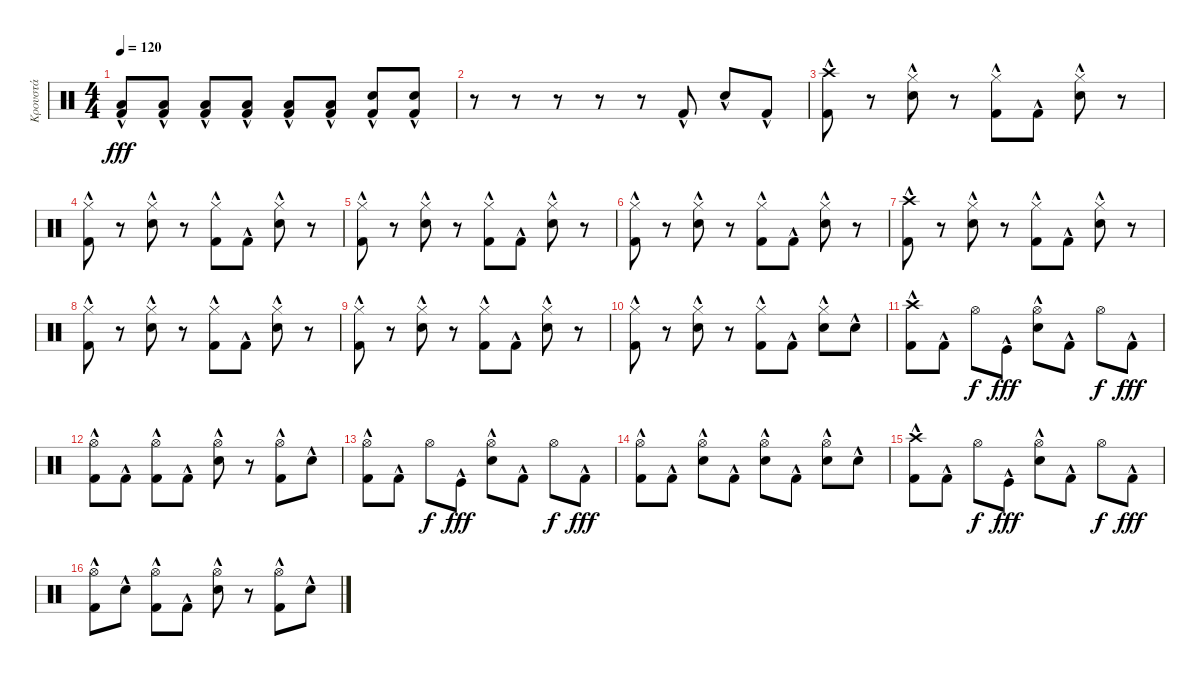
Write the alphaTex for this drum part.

\track ("Κρουστά" "Κρουστά") {instrument percussion}
\staff {score}
\articulation defaults
\ts (4 4)
\tempo 120
\clef neutral
\ks c
("Kick (hit) 2"{hac} "Low Tom (hit)").8{dy fff} ("Kick (hit) 2"{hac} "Low Tom (hit)").8 ("Kick (hit) 2"{hac} "Low Tom (hit)").8 ("Kick (hit) 2"{hac} "Low Tom (hit)").8 ("Kick (hit) 2"{hac} "Low Tom (hit)").8 ("Kick (hit) 2"{hac} "Low Tom (hit)").8 ("Kick (hit) 2"{hac} "Electric Snare (hit)"{hac}).8 ("Kick (hit) 2"{hac} "Electric Snare (hit)"{hac}).8 |
r.8 r.8 r.8 r.8 r.8 "Kick (hit) 2"{hac}.8 "Electric Snare (hit)"{hac}.8 "Kick (hit) 2"{hac}.8 |
("Kick (hit) 2"{hac} "Crash high (hit)").8 r.8 ("Electric Snare (hit)"{hac} "Hi-Hat (closed)").8 r.8 ("Kick (hit) 2"{hac} "Hi-Hat (closed)").8 "Kick (hit) 2"{hac}.8 ("Electric Snare (hit)"{hac} "Hi-Hat (closed)").8 r.8 |
("Kick (hit) 2"{hac} "Hi-Hat (closed)").8 r.8 ("Electric Snare (hit)"{hac} "Hi-Hat (closed)").8 r.8 ("Kick (hit) 2"{hac} "Hi-Hat (closed)").8 "Kick (hit) 2"{hac}.8 ("Electric Snare (hit)"{hac} "Hi-Hat (closed)").8 r.8 |
("Kick (hit) 2"{hac} "Hi-Hat (closed)").8 r.8 ("Electric Snare (hit)"{hac} "Hi-Hat (closed)").8 r.8 ("Kick (hit) 2"{hac} "Hi-Hat (closed)").8 "Kick (hit) 2"{hac}.8 ("Electric Snare (hit)"{hac} "Hi-Hat (closed)").8 r.8 |
("Kick (hit) 2"{hac} "Hi-Hat (closed)").8 r.8 ("Electric Snare (hit)"{hac} "Hi-Hat (closed)").8 r.8 ("Kick (hit) 2"{hac} "Hi-Hat (closed)").8 "Kick (hit) 2"{hac}.8 ("Electric Snare (hit)"{hac} "Hi-Hat (closed)").8 r.8 |
("Kick (hit) 2"{hac} "Crash high (hit)").8 r.8 ("Electric Snare (hit)"{hac} "Hi-Hat (closed)").8 r.8 ("Kick (hit) 2"{hac} "Hi-Hat (closed)").8 "Kick (hit) 2"{hac}.8 ("Electric Snare (hit)"{hac} "Hi-Hat (closed)").8 r.8 |
("Kick (hit) 2"{hac} "Hi-Hat (closed)").8 r.8 ("Electric Snare (hit)"{hac} "Hi-Hat (closed)").8 r.8 ("Kick (hit) 2"{hac} "Hi-Hat (closed)").8 "Kick (hit) 2"{hac}.8 ("Electric Snare (hit)"{hac} "Hi-Hat (closed)").8 r.8 |
("Kick (hit) 2"{hac} "Hi-Hat (closed)").8 r.8 ("Electric Snare (hit)"{hac} "Hi-Hat (closed)").8 r.8 ("Kick (hit) 2"{hac} "Hi-Hat (closed)").8 "Kick (hit) 2"{hac}.8 ("Electric Snare (hit)"{hac} "Hi-Hat (closed)").8 r.8 |
("Kick (hit) 2"{hac} "Hi-Hat (closed)").8 r.8 ("Electric Snare (hit)"{hac} "Hi-Hat (closed)").8 r.8 ("Kick (hit) 2"{hac} "Hi-Hat (closed)").8 "Kick (hit) 2"{hac}.8 ("Electric Snare (hit)"{hac} "Hi-Hat (closed)").8 "Electric Snare (hit)"{hac}.8 |
("Kick (hit) 2"{hac} "Crash high (hit)").8 "Kick (hit) 2"{hac}.8 "Hi-Hat (open)".8{dy f} "Kick (hit)"{hac}.8{dy fff} ("Electric Snare (hit)"{hac} "Hi-Hat (open)").8 "Kick (hit) 2"{hac}.8 "Hi-Hat (open)".8{dy f} "Kick (hit) 2"{hac}.8{dy fff} |
("Kick (hit) 2"{hac} "Hi-Hat (open)").8 "Kick (hit) 2"{hac}.8 ("Kick (hit) 2"{hac} "Hi-Hat (open)").8 "Kick (hit) 2"{hac}.8 ("Electric Snare (hit)"{hac} "Hi-Hat (open)").8 r.8 ("Kick (hit) 2"{hac} "Hi-Hat (open)").8 "Electric Snare (hit)"{hac}.8 |
("Kick (hit) 2"{hac} "Hi-Hat (open)").8 "Kick (hit) 2"{hac}.8 "Hi-Hat (open)".8{dy f} "Kick (hit)"{hac}.8{dy fff} ("Electric Snare (hit)"{hac} "Hi-Hat (open)").8 "Kick (hit) 2"{hac}.8 "Hi-Hat (open)".8{dy f} "Kick (hit) 2"{hac}.8{dy fff} |
("Kick (hit) 2"{hac} "Hi-Hat (open)").8 "Kick (hit) 2"{hac}.8 ("Electric Snare (hit)"{hac} "Hi-Hat (open)").8 "Kick (hit) 2"{hac}.8 ("Electric Snare (hit)"{hac} "Hi-Hat (open)").8 "Kick (hit) 2"{hac}.8 ("Electric Snare (hit)"{hac} "Hi-Hat (open)").8 "Electric Snare (hit)"{hac}.8 |
("Kick (hit) 2"{hac} "Crash high (hit)").8 "Kick (hit) 2"{hac}.8 "Hi-Hat (open)".8{dy f} "Kick (hit)"{hac}.8{dy fff} ("Electric Snare (hit)"{hac} "Hi-Hat (open)").8 "Kick (hit) 2"{hac}.8 "Hi-Hat (open)".8{dy f} "Kick (hit) 2"{hac}.8{dy fff} |
("Kick (hit) 2"{hac} "Hi-Hat (open)").8 "Electric Snare (hit)"{hac}.8 ("Kick (hit) 2"{hac} "Hi-Hat (open)").8 "Kick (hit) 2"{hac}.8 ("Electric Snare (hit)"{hac} "Hi-Hat (open)").8 r.8 ("Kick (hit) 2"{hac} "Hi-Hat (open)").8 "Electric Snare (hit)"{hac}.8
